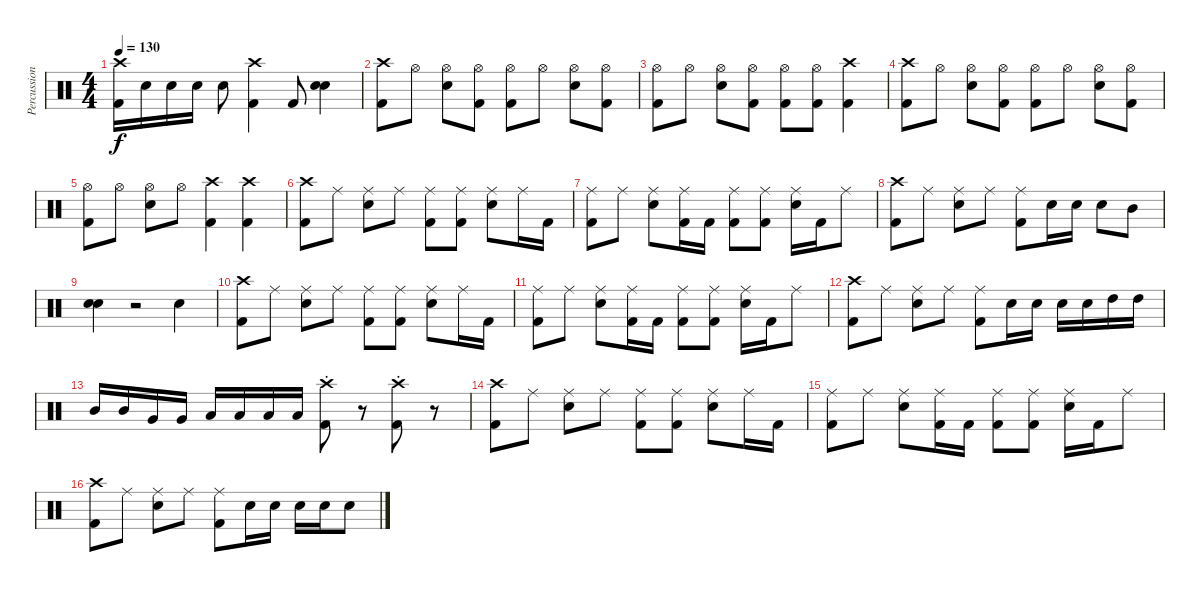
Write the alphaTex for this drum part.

\track ("Percussion" "Percussion") {instrument percussion}
\staff {score}
\articulation defaults
\ts (4 4)
\tempo 130
\clef neutral
\ks c
("Crash high (hit)" "Kick (hit) 2").16{dy f} "Snare (hit) 2".16 "Snare (hit) 2".16 "Snare (hit) 2".16 "Snare (hit) 2".8 ("Crash high (hit)" "Kick (hit) 2").4 "Kick (hit) 2".8 ("Electric Snare (hit)" "Electric Snare (hit)").4 |
("Crash high (hit)" "Kick (hit) 2").8 "Hi-Hat (open)".8 ("Hi-Hat (open)" "Snare (hit) 2").8 ("Hi-Hat (open)" "Kick (hit) 2").8 ("Hi-Hat (open)" "Kick (hit) 2").8 "Hi-Hat (open)".8 ("Hi-Hat (open)" "Snare (hit) 2").8 ("Hi-Hat (open)" "Kick (hit) 2").8 |
("Hi-Hat (open)" "Kick (hit) 2").8 "Hi-Hat (open)".8 ("Hi-Hat (open)" "Snare (hit) 2").8 ("Hi-Hat (open)" "Kick (hit) 2").8 ("Hi-Hat (open)" "Kick (hit) 2").8 ("Hi-Hat (open)" "Kick (hit) 2").8 ("Crash high (hit)" "Kick (hit) 2").4 |
("Crash high (hit)" "Kick (hit) 2").8 "Hi-Hat (open)".8 ("Hi-Hat (open)" "Snare (hit) 2").8 ("Hi-Hat (open)" "Kick (hit) 2").8 ("Hi-Hat (open)" "Kick (hit) 2").8 "Hi-Hat (open)".8 ("Hi-Hat (open)" "Snare (hit) 2").8 ("Hi-Hat (open)" "Kick (hit) 2").8 |
("Hi-Hat (open)" "Kick (hit) 2").8 "Hi-Hat (open)".8 ("Hi-Hat (open)" "Snare (hit) 2").8 "Hi-Hat (open)".8 ("Crash high (hit)" "Kick (hit) 2").4 ("Crash high (hit)" "Kick (hit) 2").4 |
("Crash high (hit)" "Kick (hit) 2").8 "Ride (middle)".8 ("Ride (middle)" "Snare (hit) 2").8 "Ride (middle)".8 ("Ride (middle)" "Kick (hit) 2").8 ("Ride (middle)" "Kick (hit) 2").8 ("Ride (middle)" "Snare (hit) 2").8 "Ride (middle)".16 "Kick (hit) 2".16 |
("Ride (middle)" "Kick (hit) 2").8 "Ride (middle)".8 ("Ride (middle)" "Snare (hit) 2").8 ("Ride (middle)" "Kick (hit) 2").16 "Kick (hit) 2".16 ("Ride (middle)" "Kick (hit) 2").8 ("Ride (middle)" "Kick (hit) 2").8 ("Ride (middle)" "Snare (hit) 2").16 "Kick (hit) 2".16 "Ride (middle)".8 |
("Crash high (hit)" "Kick (hit) 2").8 "Ride (middle)".8 ("Ride (middle)" "Snare (hit) 2").8 "Ride (middle)".8 ("Ride (middle)" "Kick (hit) 2").8 "Snare (hit) 2".16 "Snare (hit) 2".16 "Snare (hit) 2".8 "Mid Tom (hit)".8 |
("Electric Snare (hit)" "Snare (hit) 2").4 r.2 "Electric Snare (hit)".4 |
("Crash high (hit)" "Kick (hit) 2").8 "Ride (middle)".8 ("Ride (middle)" "Snare (hit) 2").8 "Ride (middle)".8 ("Ride (middle)" "Kick (hit) 2").8 ("Ride (middle)" "Kick (hit) 2").8 ("Ride (middle)" "Snare (hit) 2").8 "Ride (middle)".16 "Kick (hit) 2".16 |
("Ride (middle)" "Kick (hit) 2").8 "Ride (middle)".8 ("Ride (middle)" "Snare (hit) 2").8 ("Ride (middle)" "Kick (hit) 2").16 "Kick (hit) 2".16 ("Ride (middle)" "Kick (hit) 2").8 ("Ride (middle)" "Kick (hit) 2").8 ("Ride (middle)" "Snare (hit) 2").16 "Kick (hit) 2".16 "Ride (middle)".8 |
("Crash high (hit)" "Kick (hit) 2").8 "Ride (middle)".8 ("Ride (middle)" "Snare (hit) 2").8 "Ride (middle)".8 ("Ride (middle)" "Kick (hit) 2").8 "Snare (hit) 2".16 "Snare (hit) 2".16 "Snare (hit) 2".16 "Snare (hit) 2".16 "High Tom (hit)".16 "High Tom (hit)".16 |
"Mid Tom (hit)".16 "Mid Tom (hit)".16 "Very Low Tom (hit)".16 "Very Low Tom (hit)".16 "Low Floor Tom (hit)".16 "Low Floor Tom (hit)".16 "Low Floor Tom (hit)".16 "Low Floor Tom (hit)".16 ("Crash high (hit)"{st} "Kick (hit) 2").8 r.8 ("Crash high (hit)"{st} "Kick (hit) 2").8 r.8 |
("Crash high (hit)" "Kick (hit) 2").8 "Ride (middle)".8 ("Ride (middle)" "Snare (hit) 2").8 "Ride (middle)".8 ("Ride (middle)" "Kick (hit) 2").8 ("Ride (middle)" "Kick (hit) 2").8 ("Ride (middle)" "Snare (hit) 2").8 "Ride (middle)".16 "Kick (hit) 2".16 |
("Ride (middle)" "Kick (hit) 2").8 "Ride (middle)".8 ("Ride (middle)" "Snare (hit) 2").8 ("Ride (middle)" "Kick (hit) 2").16 "Kick (hit) 2".16 ("Ride (middle)" "Kick (hit) 2").8 ("Ride (middle)" "Kick (hit) 2").8 ("Ride (middle)" "Snare (hit) 2").16 "Kick (hit) 2".16 "Ride (middle)".8 |
("Crash high (hit)" "Kick (hit) 2").8 "Ride (middle)".8 ("Ride (middle)" "Snare (hit) 2").8 "Ride (middle)".8 ("Ride (middle)" "Kick (hit) 2").8 "Snare (hit) 2".16 "Snare (hit) 2".16 "Snare (hit) 2".16 "Snare (hit) 2".16 "Snare (hit) 2".8
